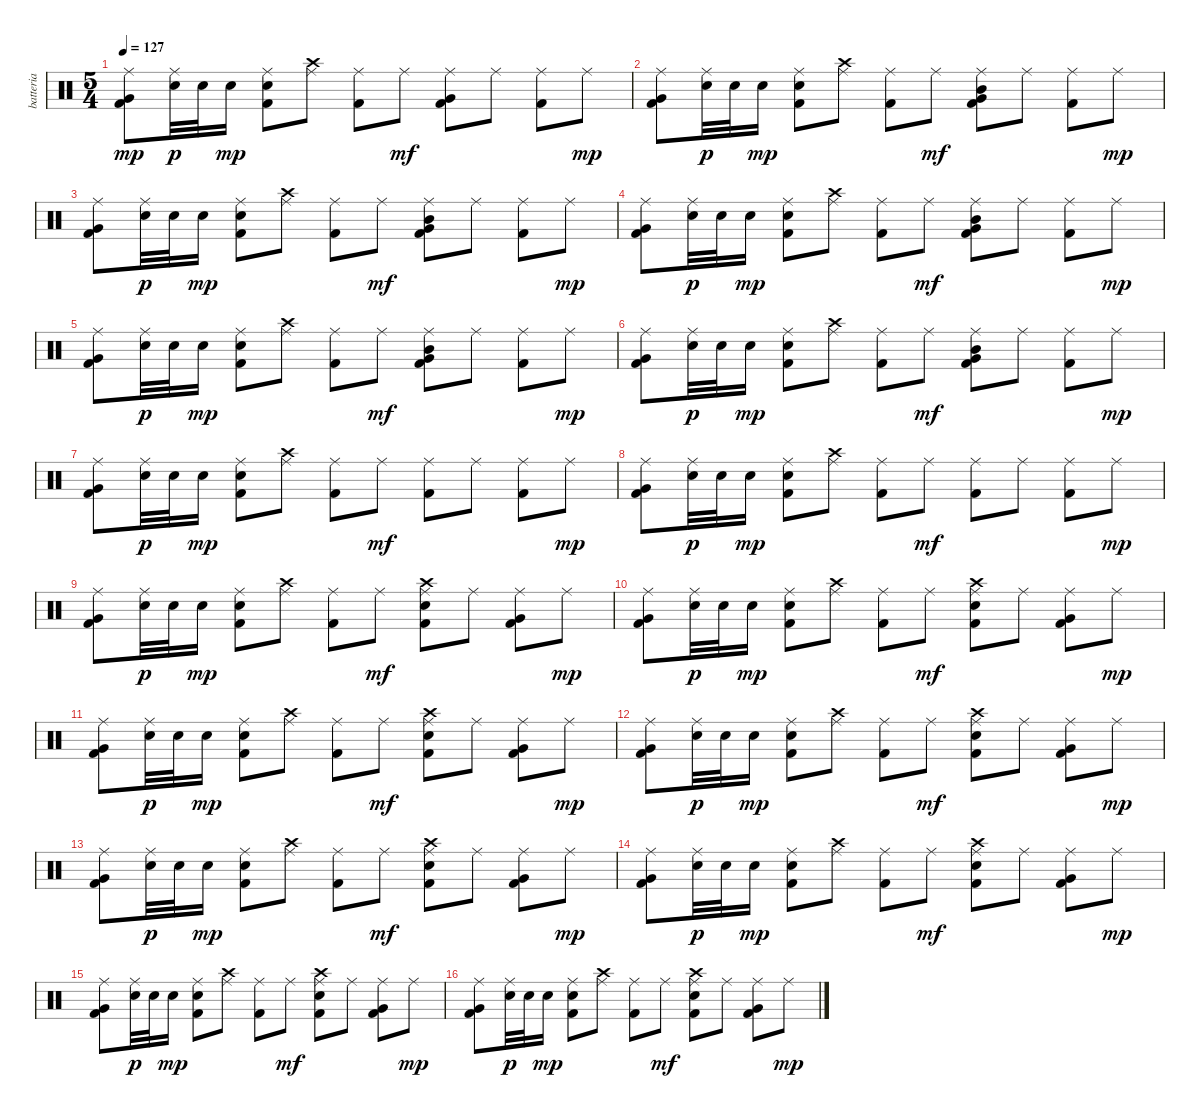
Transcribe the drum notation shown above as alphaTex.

\track ("batteria" "batteria") {instrument percussion}
\staff {score}
\articulation defaults
\ts (5 4)
\tempo 127
\clef neutral
\ks c
("Ride (middle)" "Very Low Tom (hit)" "Kick (hit) 2").8{dy mp} ("Ride (middle)" "Electric Snare (hit)").32{dy p} "Electric Snare (hit)".32 "Electric Snare (hit)".16{dy mp} ("Ride (middle)" "Electric Snare (hit)" "Kick (hit) 2").8 ("Crash high (hit)" "Ride (middle)").8 ("Ride (middle)" "Kick (hit) 2").8 "Ride (middle)".8{dy mf} ("Ride (middle)" "Very Low Tom (hit)" "Kick (hit) 2").8 "Ride (middle)".8 ("Ride (middle)" "Kick (hit) 2").8 "Ride (middle)".8{dy mp} |
("Ride (middle)" "Very Low Tom (hit)" "Kick (hit) 2").8 ("Ride (middle)" "Electric Snare (hit)").32{dy p} "Electric Snare (hit)".32 "Electric Snare (hit)".16{dy mp} ("Ride (middle)" "Electric Snare (hit)" "Kick (hit) 2").8 ("Crash high (hit)" "Ride (middle)").8 ("Ride (middle)" "Kick (hit) 2").8 "Ride (middle)".8{dy mf} ("Ride (middle)" "Mid Tom (hit)" "Very Low Tom (hit)" "Kick (hit) 2").8 "Ride (middle)".8 ("Ride (middle)" "Kick (hit) 2").8 "Ride (middle)".8{dy mp} |
("Ride (middle)" "Very Low Tom (hit)" "Kick (hit) 2").8 ("Ride (middle)" "Electric Snare (hit)").32{dy p} "Electric Snare (hit)".32 "Electric Snare (hit)".16{dy mp} ("Ride (middle)" "Electric Snare (hit)" "Kick (hit) 2").8 ("Crash high (hit)" "Ride (middle)").8 ("Ride (middle)" "Kick (hit) 2").8 "Ride (middle)".8{dy mf} ("Ride (middle)" "Mid Tom (hit)" "Very Low Tom (hit)" "Kick (hit) 2").8 "Ride (middle)".8 ("Ride (middle)" "Kick (hit) 2").8 "Ride (middle)".8{dy mp} |
("Ride (middle)" "Very Low Tom (hit)" "Kick (hit) 2").8 ("Ride (middle)" "Electric Snare (hit)").32{dy p} "Electric Snare (hit)".32 "Electric Snare (hit)".16{dy mp} ("Ride (middle)" "Electric Snare (hit)" "Kick (hit) 2").8 ("Crash high (hit)" "Ride (middle)").8 ("Ride (middle)" "Kick (hit) 2").8 "Ride (middle)".8{dy mf} ("Ride (middle)" "Mid Tom (hit)" "Very Low Tom (hit)" "Kick (hit) 2").8 "Ride (middle)".8 ("Ride (middle)" "Kick (hit) 2").8 "Ride (middle)".8{dy mp} |
("Ride (middle)" "Very Low Tom (hit)" "Kick (hit) 2").8 ("Ride (middle)" "Electric Snare (hit)").32{dy p} "Electric Snare (hit)".32 "Electric Snare (hit)".16{dy mp} ("Ride (middle)" "Electric Snare (hit)" "Kick (hit) 2").8 ("Crash high (hit)" "Ride (middle)").8 ("Ride (middle)" "Kick (hit) 2").8 "Ride (middle)".8{dy mf} ("Ride (middle)" "Mid Tom (hit)" "Very Low Tom (hit)" "Kick (hit) 2").8 "Ride (middle)".8 ("Ride (middle)" "Kick (hit) 2").8 "Ride (middle)".8{dy mp} |
("Ride (middle)" "Very Low Tom (hit)" "Kick (hit) 2").8 ("Ride (middle)" "Electric Snare (hit)").32{dy p} "Electric Snare (hit)".32 "Electric Snare (hit)".16{dy mp} ("Ride (middle)" "Electric Snare (hit)" "Kick (hit) 2").8 ("Crash high (hit)" "Ride (middle)").8 ("Ride (middle)" "Kick (hit) 2").8 "Ride (middle)".8{dy mf} ("Ride (middle)" "Mid Tom (hit)" "Very Low Tom (hit)" "Kick (hit) 2").8 "Ride (middle)".8 ("Ride (middle)" "Kick (hit) 2").8 "Ride (middle)".8{dy mp} |
("Ride (middle)" "Very Low Tom (hit)" "Kick (hit) 2").8 ("Ride (middle)" "Electric Snare (hit)").32{dy p} "Electric Snare (hit)".32 "Electric Snare (hit)".16{dy mp} ("Ride (middle)" "Electric Snare (hit)" "Kick (hit) 2").8 ("Crash high (hit)" "Ride (middle)").8 ("Ride (middle)" "Kick (hit) 2").8 "Ride (middle)".8{dy mf} ("Ride (middle)" "Kick (hit) 2").8 "Ride (middle)".8 ("Ride (middle)" "Kick (hit) 2").8 "Ride (middle)".8{dy mp} |
("Ride (middle)" "Very Low Tom (hit)" "Kick (hit) 2").8 ("Ride (middle)" "Electric Snare (hit)").32{dy p} "Electric Snare (hit)".32 "Electric Snare (hit)".16{dy mp} ("Ride (middle)" "Electric Snare (hit)" "Kick (hit) 2").8 ("Crash high (hit)" "Ride (middle)").8 ("Ride (middle)" "Kick (hit) 2").8 "Ride (middle)".8{dy mf} ("Ride (middle)" "Kick (hit) 2").8 "Ride (middle)".8 ("Ride (middle)" "Kick (hit) 2").8 "Ride (middle)".8{dy mp} |
("Ride (middle)" "Very Low Tom (hit)" "Kick (hit) 2").8 ("Ride (middle)" "Electric Snare (hit)").32{dy p} "Electric Snare (hit)".32 "Electric Snare (hit)".16{dy mp} ("Ride (middle)" "Electric Snare (hit)" "Kick (hit) 2").8 ("Crash high (hit)" "Ride (middle)").8 ("Ride (middle)" "Kick (hit) 2").8 "Ride (middle)".8{dy mf} ("Crash high (hit)" "Ride (middle)" "Electric Snare (hit)" "Kick (hit) 2").8 "Ride (middle)".8 ("Ride (middle)" "Very Low Tom (hit)" "Kick (hit) 2").8 "Ride (middle)".8{dy mp} |
("Ride (middle)" "Very Low Tom (hit)" "Kick (hit) 2").8 ("Ride (middle)" "Electric Snare (hit)").32{dy p} "Electric Snare (hit)".32 "Electric Snare (hit)".16{dy mp} ("Ride (middle)" "Electric Snare (hit)" "Kick (hit) 2").8 ("Crash high (hit)" "Ride (middle)").8 ("Ride (middle)" "Kick (hit) 2").8 "Ride (middle)".8{dy mf} ("Crash high (hit)" "Ride (middle)" "Electric Snare (hit)" "Kick (hit) 2").8 "Ride (middle)".8 ("Ride (middle)" "Very Low Tom (hit)" "Kick (hit) 2").8 "Ride (middle)".8{dy mp} |
("Ride (middle)" "Very Low Tom (hit)" "Kick (hit) 2").8 ("Ride (middle)" "Electric Snare (hit)").32{dy p} "Electric Snare (hit)".32 "Electric Snare (hit)".16{dy mp} ("Ride (middle)" "Electric Snare (hit)" "Kick (hit) 2").8 ("Crash high (hit)" "Ride (middle)").8 ("Ride (middle)" "Kick (hit) 2").8 "Ride (middle)".8{dy mf} ("Crash high (hit)" "Ride (middle)" "Electric Snare (hit)" "Kick (hit) 2").8 "Ride (middle)".8 ("Ride (middle)" "Very Low Tom (hit)" "Kick (hit) 2").8 "Ride (middle)".8{dy mp} |
("Ride (middle)" "Very Low Tom (hit)" "Kick (hit) 2").8 ("Ride (middle)" "Electric Snare (hit)").32{dy p} "Electric Snare (hit)".32 "Electric Snare (hit)".16{dy mp} ("Ride (middle)" "Electric Snare (hit)" "Kick (hit) 2").8 ("Crash high (hit)" "Ride (middle)").8 ("Ride (middle)" "Kick (hit) 2").8 "Ride (middle)".8{dy mf} ("Crash high (hit)" "Ride (middle)" "Electric Snare (hit)" "Kick (hit) 2").8 "Ride (middle)".8 ("Ride (middle)" "Very Low Tom (hit)" "Kick (hit) 2").8 "Ride (middle)".8{dy mp} |
("Ride (middle)" "Very Low Tom (hit)" "Kick (hit) 2").8 ("Ride (middle)" "Electric Snare (hit)").32{dy p} "Electric Snare (hit)".32 "Electric Snare (hit)".16{dy mp} ("Ride (middle)" "Electric Snare (hit)" "Kick (hit) 2").8 ("Crash high (hit)" "Ride (middle)").8 ("Ride (middle)" "Kick (hit) 2").8 "Ride (middle)".8{dy mf} ("Crash high (hit)" "Ride (middle)" "Electric Snare (hit)" "Kick (hit) 2").8 "Ride (middle)".8 ("Ride (middle)" "Very Low Tom (hit)" "Kick (hit) 2").8 "Ride (middle)".8{dy mp} |
("Ride (middle)" "Very Low Tom (hit)" "Kick (hit) 2").8 ("Ride (middle)" "Electric Snare (hit)").32{dy p} "Electric Snare (hit)".32 "Electric Snare (hit)".16{dy mp} ("Ride (middle)" "Electric Snare (hit)" "Kick (hit) 2").8 ("Crash high (hit)" "Ride (middle)").8 ("Ride (middle)" "Kick (hit) 2").8 "Ride (middle)".8{dy mf} ("Crash high (hit)" "Ride (middle)" "Electric Snare (hit)" "Kick (hit) 2").8 "Ride (middle)".8 ("Ride (middle)" "Very Low Tom (hit)" "Kick (hit) 2").8 "Ride (middle)".8{dy mp} |
("Ride (middle)" "Very Low Tom (hit)" "Kick (hit) 2").8 ("Ride (middle)" "Electric Snare (hit)").32{dy p} "Electric Snare (hit)".32 "Electric Snare (hit)".16{dy mp} ("Ride (middle)" "Electric Snare (hit)" "Kick (hit) 2").8 ("Crash high (hit)" "Ride (middle)").8 ("Ride (middle)" "Kick (hit) 2").8 "Ride (middle)".8{dy mf} ("Crash high (hit)" "Ride (middle)" "Electric Snare (hit)" "Kick (hit) 2").8 "Ride (middle)".8 ("Ride (middle)" "Very Low Tom (hit)" "Kick (hit) 2").8 "Ride (middle)".8{dy mp} |
("Ride (middle)" "Very Low Tom (hit)" "Kick (hit) 2").8 ("Ride (middle)" "Electric Snare (hit)").32{dy p} "Electric Snare (hit)".32 "Electric Snare (hit)".16{dy mp} ("Ride (middle)" "Electric Snare (hit)" "Kick (hit) 2").8 ("Crash high (hit)" "Ride (middle)").8 ("Ride (middle)" "Kick (hit) 2").8 "Ride (middle)".8{dy mf} ("Crash high (hit)" "Ride (middle)" "Electric Snare (hit)" "Kick (hit) 2").8 "Ride (middle)".8 ("Ride (middle)" "Very Low Tom (hit)" "Kick (hit) 2").8 "Ride (middle)".8{dy mp}
